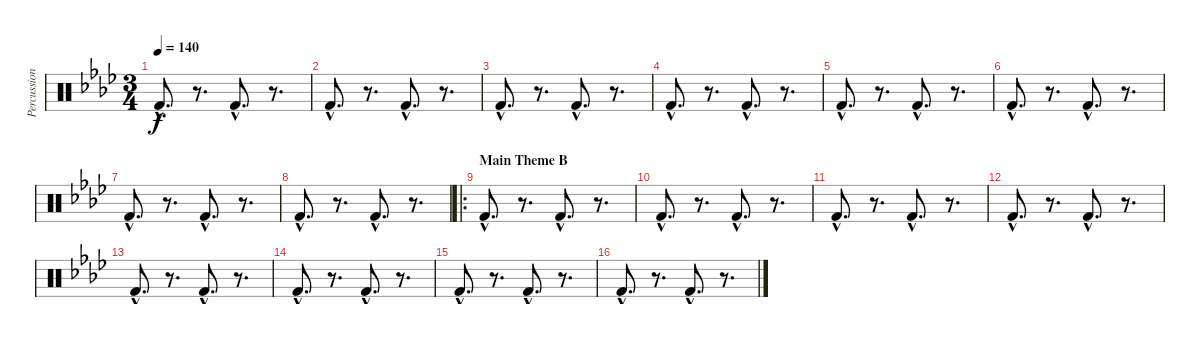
\track ("Percussion" "Percussion") {instrument percussion}
\staff {score}
\articulation defaults
\ts (3 4)
\tempo 140
\clef neutral
\ks fminor "Kick (hit) 2"{hac}.8{d dy f}
r.8{d} "Kick (hit) 2"{hac}.8{d} r.8{d} |
"Kick (hit) 2"{hac}.8{d} r.8{d} "Kick (hit) 2"{hac}.8{d} r.8{d} |
"Kick (hit) 2"{hac}.8{d} r.8{d} "Kick (hit) 2"{hac}.8{d} r.8{d} |
"Kick (hit) 2"{hac}.8{d} r.8{d} "Kick (hit) 2"{hac}.8{d} r.8{d} |
"Kick (hit) 2"{hac}.8{d} r.8{d} "Kick (hit) 2"{hac}.8{d} r.8{d} |
"Kick (hit) 2"{hac}.8{d} r.8{d} "Kick (hit) 2"{hac}.8{d} r.8{d} |
"Kick (hit) 2"{hac}.8{d} r.8{d} "Kick (hit) 2"{hac}.8{d} r.8{d} |
"Kick (hit) 2"{hac}.8{d} r.8{d} "Kick (hit) 2"{hac}.8{d} r.8{d} |
\ro
\section ("" "Main Theme B")
"Kick (hit) 2"{hac}.8{d} r.8{d} "Kick (hit) 2"{hac}.8{d} r.8{d} |
"Kick (hit) 2"{hac}.8{d} r.8{d} "Kick (hit) 2"{hac}.8{d} r.8{d} |
"Kick (hit) 2"{hac}.8{d} r.8{d} "Kick (hit) 2"{hac}.8{d} r.8{d} |
"Kick (hit) 2"{hac}.8{d} r.8{d} "Kick (hit) 2"{hac}.8{d} r.8{d} |
"Kick (hit) 2"{hac}.8{d} r.8{d} "Kick (hit) 2"{hac}.8{d} r.8{d} |
"Kick (hit) 2"{hac}.8{d} r.8{d} "Kick (hit) 2"{hac}.8{d} r.8{d} |
"Kick (hit) 2"{hac}.8{d} r.8{d} "Kick (hit) 2"{hac}.8{d} r.8{d} |
"Kick (hit) 2"{hac}.8{d} r.8{d} "Kick (hit) 2"{hac}.8{d} r.8{d}
